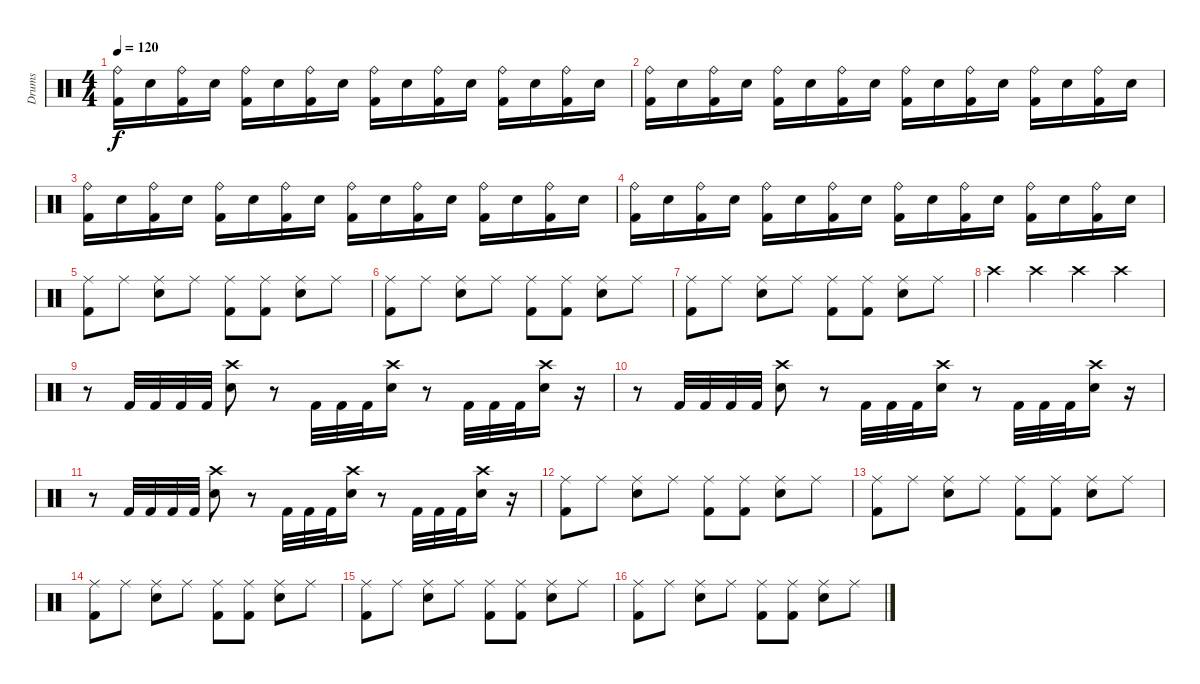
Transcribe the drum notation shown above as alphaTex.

\track ("Drums" "Drums") {instrument percussion}
\staff {score}
\articulation defaults
\ts (4 4)
\tempo 120
\clef neutral
\ks c
("Ride (bell)" "Kick (hit) 2").16{dy f} "Snare (hit) 2".16 ("Ride (bell)" "Kick (hit) 2").16 "Snare (hit) 2".16 ("Ride (bell)" "Kick (hit) 2").16 "Snare (hit) 2".16 ("Ride (bell)" "Kick (hit) 2").16 "Snare (hit) 2".16 ("Ride (bell)" "Kick (hit) 2").16 "Snare (hit) 2".16 ("Ride (bell)" "Kick (hit) 2").16 "Snare (hit) 2".16 ("Ride (bell)" "Kick (hit) 2").16 "Snare (hit) 2".16 ("Ride (bell)" "Kick (hit) 2").16 "Snare (hit) 2".16 |
("Ride (bell)" "Kick (hit) 2").16 "Snare (hit) 2".16 ("Ride (bell)" "Kick (hit) 2").16 "Snare (hit) 2".16 ("Ride (bell)" "Kick (hit) 2").16 "Snare (hit) 2".16 ("Ride (bell)" "Kick (hit) 2").16 "Snare (hit) 2".16 ("Ride (bell)" "Kick (hit) 2").16 "Snare (hit) 2".16 ("Ride (bell)" "Kick (hit) 2").16 "Snare (hit) 2".16 ("Ride (bell)" "Kick (hit) 2").16 "Snare (hit) 2".16 ("Ride (bell)" "Kick (hit) 2").16 "Snare (hit) 2".16 |
("Ride (bell)" "Kick (hit) 2").16 "Snare (hit) 2".16 ("Ride (bell)" "Kick (hit) 2").16 "Snare (hit) 2".16 ("Ride (bell)" "Kick (hit) 2").16 "Snare (hit) 2".16 ("Ride (bell)" "Kick (hit) 2").16 "Snare (hit) 2".16 ("Ride (bell)" "Kick (hit) 2").16 "Snare (hit) 2".16 ("Ride (bell)" "Kick (hit) 2").16 "Snare (hit) 2".16 ("Ride (bell)" "Kick (hit) 2").16 "Snare (hit) 2".16 ("Ride (bell)" "Kick (hit) 2").16 "Snare (hit) 2".16 |
("Ride (bell)" "Kick (hit) 2").16 "Snare (hit) 2".16 ("Ride (bell)" "Kick (hit) 2").16 "Snare (hit) 2".16 ("Ride (bell)" "Kick (hit) 2").16 "Snare (hit) 2".16 ("Ride (bell)" "Kick (hit) 2").16 "Snare (hit) 2".16 ("Ride (bell)" "Kick (hit) 2").16 "Snare (hit) 2".16 ("Ride (bell)" "Kick (hit) 2").16 "Snare (hit) 2".16 ("Ride (bell)" "Kick (hit) 2").16 "Snare (hit) 2".16 ("Ride (bell)" "Kick (hit) 2").16 "Snare (hit) 2".16 |
("Ride (middle)" "Kick (hit) 2").8 "Ride (middle)".8 ("Ride (middle)" "Snare (hit) 2").8 "Ride (middle)".8 ("Ride (middle)" "Kick (hit) 2").8 ("Ride (middle)" "Kick (hit) 2").8 ("Ride (middle)" "Snare (hit) 2").8 "Ride (middle)".8 |
("Ride (middle)" "Kick (hit) 2").8 "Ride (middle)".8 ("Ride (middle)" "Snare (hit) 2").8 "Ride (middle)".8 ("Ride (middle)" "Kick (hit) 2").8 ("Ride (middle)" "Kick (hit) 2").8 ("Ride (middle)" "Snare (hit) 2").8 "Ride (middle)".8 |
("Ride (middle)" "Kick (hit) 2").8 "Ride (middle)".8 ("Ride (middle)" "Snare (hit) 2").8 "Ride (middle)".8 ("Ride (middle)" "Kick (hit) 2").8 ("Ride (middle)" "Kick (hit) 2").8 ("Ride (middle)" "Snare (hit) 2").8 "Ride (middle)".8 |
"Crash high (hit)".4 "Crash high (hit)".4 "Crash high (hit)".4 "Crash high (hit)".4 |
r.8 "Kick (hit) 2".32 "Kick (hit) 2".32 "Kick (hit) 2".32 "Kick (hit) 2".32 ("Crash high (hit)" "Snare (hit) 2").8 r.8 "Kick (hit) 2".32 "Kick (hit) 2".32 "Kick (hit) 2".32 ("Crash high (hit)" "Snare (hit) 2").16 r.8 "Kick (hit) 2".32 "Kick (hit) 2".32 "Kick (hit) 2".32 ("Crash high (hit)" "Snare (hit) 2").16 r.16 |
r.8 "Kick (hit) 2".32 "Kick (hit) 2".32 "Kick (hit) 2".32 "Kick (hit) 2".32 ("Crash high (hit)" "Snare (hit) 2").8 r.8 "Kick (hit) 2".32 "Kick (hit) 2".32 "Kick (hit) 2".32 ("Crash high (hit)" "Snare (hit) 2").16 r.8 "Kick (hit) 2".32 "Kick (hit) 2".32 "Kick (hit) 2".32 ("Crash high (hit)" "Snare (hit) 2").16 r.16 |
r.8 "Kick (hit) 2".32 "Kick (hit) 2".32 "Kick (hit) 2".32 "Kick (hit) 2".32 ("Crash high (hit)" "Snare (hit) 2").8 r.8 "Kick (hit) 2".32 "Kick (hit) 2".32 "Kick (hit) 2".32 ("Crash high (hit)" "Snare (hit) 2").16 r.8 "Kick (hit) 2".32 "Kick (hit) 2".32 "Kick (hit) 2".32 ("Crash high (hit)" "Snare (hit) 2").16 r.16 |
("Ride (middle)" "Kick (hit) 2").8 "Ride (middle)".8 ("Ride (middle)" "Snare (hit) 2").8 "Ride (middle)".8 ("Ride (middle)" "Kick (hit) 2").8 ("Ride (middle)" "Kick (hit) 2").8 ("Ride (middle)" "Snare (hit) 2").8 "Ride (middle)".8 |
("Ride (middle)" "Kick (hit) 2").8 "Ride (middle)".8 ("Ride (middle)" "Snare (hit) 2").8 "Ride (middle)".8 ("Ride (middle)" "Kick (hit) 2").8 ("Ride (middle)" "Kick (hit) 2").8 ("Ride (middle)" "Snare (hit) 2").8 "Ride (middle)".8 |
("Ride (middle)" "Kick (hit) 2").8 "Ride (middle)".8 ("Ride (middle)" "Snare (hit) 2").8 "Ride (middle)".8 ("Ride (middle)" "Kick (hit) 2").8 ("Ride (middle)" "Kick (hit) 2").8 ("Ride (middle)" "Snare (hit) 2").8 "Ride (middle)".8 |
("Ride (middle)" "Kick (hit) 2").8 "Ride (middle)".8 ("Ride (middle)" "Snare (hit) 2").8 "Ride (middle)".8 ("Ride (middle)" "Kick (hit) 2").8 ("Ride (middle)" "Kick (hit) 2").8 ("Ride (middle)" "Snare (hit) 2").8 "Ride (middle)".8 |
("Ride (middle)" "Kick (hit) 2").8 "Ride (middle)".8 ("Ride (middle)" "Snare (hit) 2").8 "Ride (middle)".8 ("Ride (middle)" "Kick (hit) 2").8 ("Ride (middle)" "Kick (hit) 2").8 ("Ride (middle)" "Snare (hit) 2").8 "Ride (middle)".8
